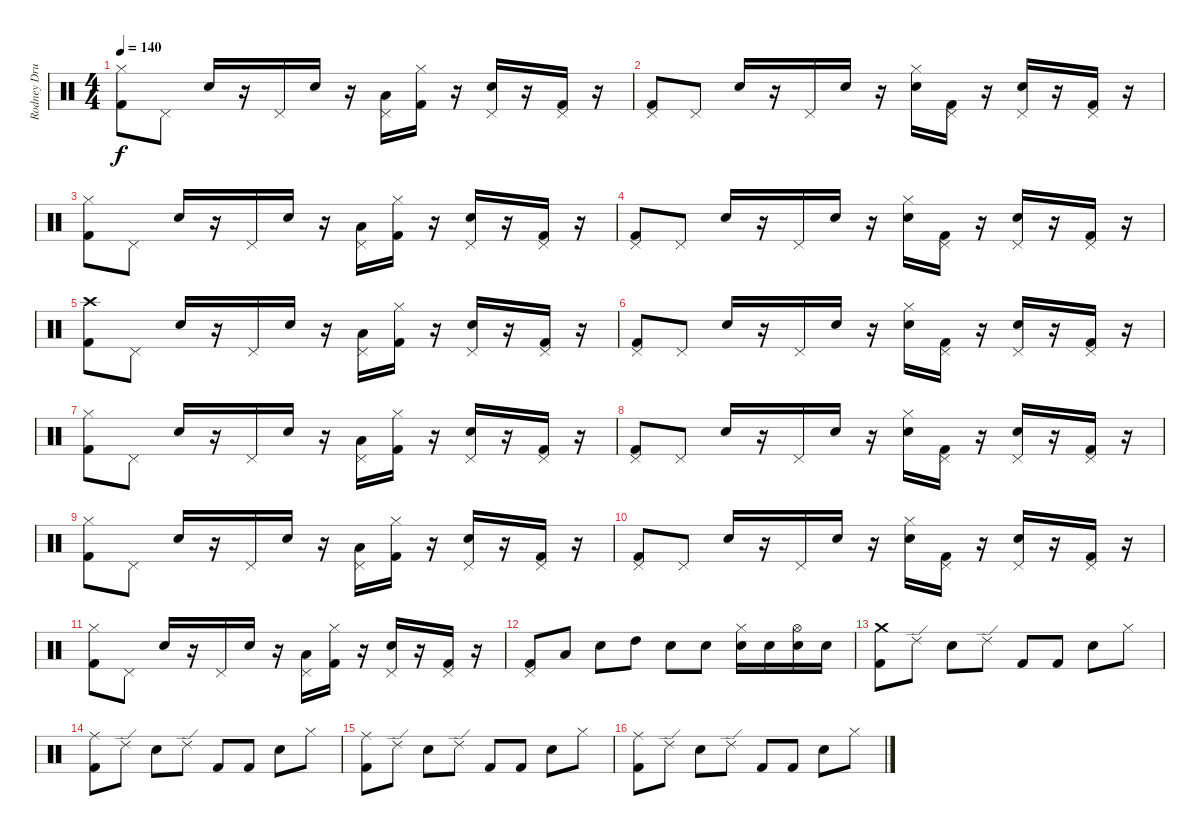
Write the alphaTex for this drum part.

\track ("Rodney Drums" "Rodney Dru") {instrument percussion}
\staff {score}
\articulation defaults
\ts (4 4)
\tempo 140
\clef neutral
\ks c
("Hi-Hat (closed)" "Kick (hit) 2").8{dy f} "Pedal Hi-Hat (hit)".8 "Electric Snare (hit)".16 r.16 "Pedal Hi-Hat (hit)".16 "Electric Snare (hit)".16 r.16 ("Pedal Hi-Hat (hit)" "Low Tom (hit)").16 ("Hi-Hat (closed)" "Kick (hit) 2").16 r.16 ("Pedal Hi-Hat (hit)" "Electric Snare (hit)").16 r.16 ("Pedal Hi-Hat (hit)" "Kick (hit) 2").16 r.16 |
("Pedal Hi-Hat (hit)" "Kick (hit) 2").8 "Pedal Hi-Hat (hit)".8 "Electric Snare (hit)".16 r.16 "Pedal Hi-Hat (hit)".16 "Electric Snare (hit)".16 r.16 ("Hi-Hat (closed)" "Electric Snare (hit)").16 ("Pedal Hi-Hat (hit)" "Kick (hit) 2").16 r.16 ("Pedal Hi-Hat (hit)" "Electric Snare (hit)").16 r.16 ("Pedal Hi-Hat (hit)" "Kick (hit) 2").16 r.16 |
("Hi-Hat (closed)" "Kick (hit) 2").8 "Pedal Hi-Hat (hit)".8 "Electric Snare (hit)".16 r.16 "Pedal Hi-Hat (hit)".16 "Electric Snare (hit)".16 r.16 ("Pedal Hi-Hat (hit)" "Low Tom (hit)").16 ("Hi-Hat (closed)" "Kick (hit) 2").16 r.16 ("Pedal Hi-Hat (hit)" "Electric Snare (hit)").16 r.16 ("Pedal Hi-Hat (hit)" "Kick (hit) 2").16 r.16 |
("Pedal Hi-Hat (hit)" "Kick (hit) 2").8 "Pedal Hi-Hat (hit)".8 "Electric Snare (hit)".16 r.16 "Pedal Hi-Hat (hit)".16 "Electric Snare (hit)".16 r.16 ("Hi-Hat (closed)" "Electric Snare (hit)").16 ("Pedal Hi-Hat (hit)" "Kick (hit) 2").16 r.16 ("Pedal Hi-Hat (hit)" "Electric Snare (hit)").16 r.16 ("Pedal Hi-Hat (hit)" "Kick (hit) 2").16 r.16 |
("Crash high (hit)" "Kick (hit) 2").8 "Pedal Hi-Hat (hit)".8 "Electric Snare (hit)".16 r.16 "Pedal Hi-Hat (hit)".16 "Electric Snare (hit)".16 r.16 ("Pedal Hi-Hat (hit)" "Low Tom (hit)").16 ("Hi-Hat (closed)" "Kick (hit) 2").16 r.16 ("Pedal Hi-Hat (hit)" "Electric Snare (hit)").16 r.16 ("Pedal Hi-Hat (hit)" "Kick (hit) 2").16 r.16 |
("Pedal Hi-Hat (hit)" "Kick (hit) 2").8 "Pedal Hi-Hat (hit)".8 "Electric Snare (hit)".16 r.16 "Pedal Hi-Hat (hit)".16 "Electric Snare (hit)".16 r.16 ("Hi-Hat (closed)" "Electric Snare (hit)").16 ("Pedal Hi-Hat (hit)" "Kick (hit) 2").16 r.16 ("Pedal Hi-Hat (hit)" "Electric Snare (hit)").16 r.16 ("Pedal Hi-Hat (hit)" "Kick (hit) 2").16 r.16 |
("Hi-Hat (closed)" "Kick (hit) 2").8 "Pedal Hi-Hat (hit)".8 "Electric Snare (hit)".16 r.16 "Pedal Hi-Hat (hit)".16 "Electric Snare (hit)".16 r.16 ("Pedal Hi-Hat (hit)" "Low Tom (hit)").16 ("Hi-Hat (closed)" "Kick (hit) 2").16 r.16 ("Pedal Hi-Hat (hit)" "Electric Snare (hit)").16 r.16 ("Pedal Hi-Hat (hit)" "Kick (hit) 2").16 r.16 |
("Pedal Hi-Hat (hit)" "Kick (hit) 2").8 "Pedal Hi-Hat (hit)".8 "Electric Snare (hit)".16 r.16 "Pedal Hi-Hat (hit)".16 "Electric Snare (hit)".16 r.16 ("Hi-Hat (closed)" "Electric Snare (hit)").16 ("Pedal Hi-Hat (hit)" "Kick (hit) 2").16 r.16 ("Pedal Hi-Hat (hit)" "Electric Snare (hit)").16 r.16 ("Pedal Hi-Hat (hit)" "Kick (hit) 2").16 r.16 |
("Hi-Hat (closed)" "Kick (hit) 2").8 "Pedal Hi-Hat (hit)".8 "Electric Snare (hit)".16 r.16 "Pedal Hi-Hat (hit)".16 "Electric Snare (hit)".16 r.16 ("Pedal Hi-Hat (hit)" "Low Tom (hit)").16 ("Hi-Hat (closed)" "Kick (hit) 2").16 r.16 ("Pedal Hi-Hat (hit)" "Electric Snare (hit)").16 r.16 ("Pedal Hi-Hat (hit)" "Kick (hit) 2").16 r.16 |
("Pedal Hi-Hat (hit)" "Kick (hit) 2").8 "Pedal Hi-Hat (hit)".8 "Electric Snare (hit)".16 r.16 "Pedal Hi-Hat (hit)".16 "Electric Snare (hit)".16 r.16 ("Hi-Hat (closed)" "Electric Snare (hit)").16 ("Pedal Hi-Hat (hit)" "Kick (hit) 2").16 r.16 ("Pedal Hi-Hat (hit)" "Electric Snare (hit)").16 r.16 ("Pedal Hi-Hat (hit)" "Kick (hit) 2").16 r.16 |
("Hi-Hat (closed)" "Kick (hit) 2").8 "Pedal Hi-Hat (hit)".8 "Electric Snare (hit)".16 r.16 "Pedal Hi-Hat (hit)".16 "Electric Snare (hit)".16 r.16 ("Pedal Hi-Hat (hit)" "Low Tom (hit)").16 ("Hi-Hat (closed)" "Kick (hit) 2").16 r.16 ("Pedal Hi-Hat (hit)" "Electric Snare (hit)").16 r.16 ("Pedal Hi-Hat (hit)" "Kick (hit) 2").16 r.16 |
("Pedal Hi-Hat (hit)" "Kick (hit) 2").8 "Low Tom (hit)".8 "Electric Snare (hit)".8 "High Tom (hit)".8 "Electric Snare (hit)".8 "Electric Snare (hit)".8 ("Hi-Hat (closed)" "Electric Snare (hit)").16 "Electric Snare (hit)".16 ("Hi-Hat (open)" "Electric Snare (hit)").16 "Electric Snare (hit)".16 |
("Crash medium (hit)" "Kick (hit) 2").8 "Ride (edge) 2".8 "Electric Snare (hit)".8 "Ride (edge) 2".8 "Kick (hit) 2".8 "Kick (hit) 2".8 "Electric Snare (hit)".8 "Hi-Hat (closed)".8 |
("Ride (middle)" "Kick (hit) 2").8 "Ride (edge) 2".8 "Electric Snare (hit)".8 "Ride (edge) 2".8 "Kick (hit) 2".8 "Kick (hit) 2".8 "Electric Snare (hit)".8 "Hi-Hat (closed)".8 |
("Ride (middle)" "Kick (hit) 2").8 "Ride (edge) 2".8 "Electric Snare (hit)".8 "Ride (edge) 2".8 "Kick (hit) 2".8 "Kick (hit) 2".8 "Electric Snare (hit)".8 "Hi-Hat (closed)".8 |
("Ride (middle)" "Kick (hit) 2").8 "Ride (edge) 2".8 "Electric Snare (hit)".8 "Ride (edge) 2".8 "Kick (hit) 2".8 "Kick (hit) 2".8 "Electric Snare (hit)".8 "Hi-Hat (closed)".8
